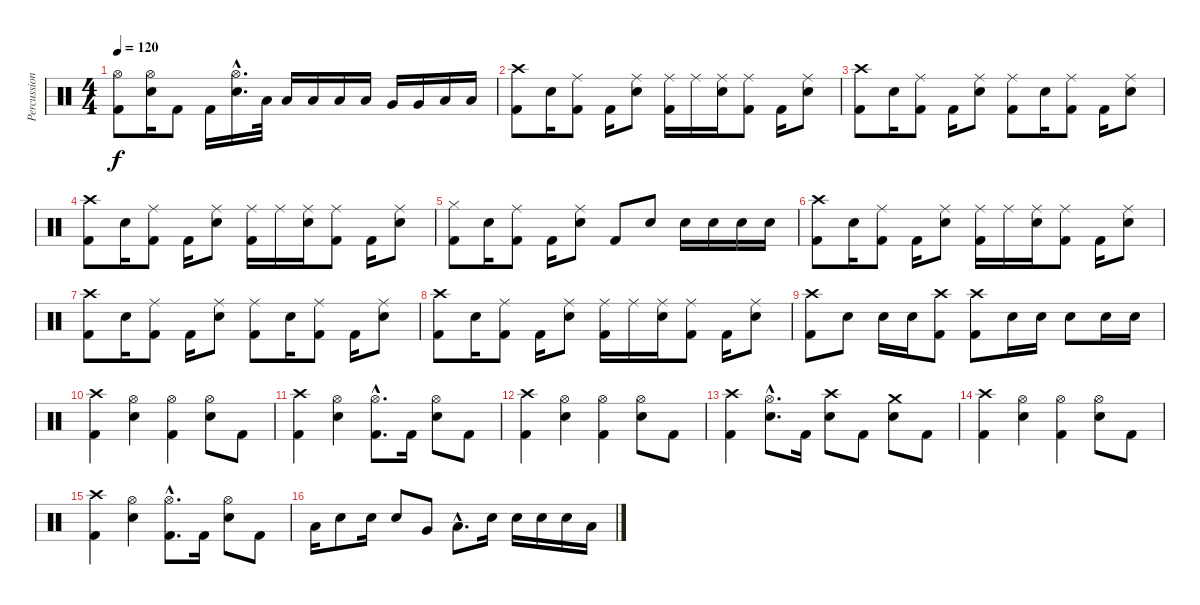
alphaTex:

\track ("Percussion" "Percussion") {instrument percussion}
\staff {score}
\articulation defaults
\ts (4 4)
\tempo 120
\clef neutral
\ks c
("Hi-Hat (open)" "Kick (hit) 2").8{dy f} ("Hi-Hat (open)" "Snare (hit) 2").16 "Kick (hit) 2".8 "Kick (hit) 2".16 ("Hi-Hat (open)"{hac} "Snare (hit) 2"{hac}).16{d} "Low Tom (hit)".32 "Low Tom (hit)".16 "Low Tom (hit)".16 "Low Tom (hit)".16 "Low Tom (hit)".16 "Very Low Tom (hit)".16 "Very Low Tom (hit)".16 "Low Floor Tom (hit)".16 "Low Floor Tom (hit)".16 |
("Crash high (hit)" "Kick (hit) 2").8 "Snare (hit) 2".16 ("Ride (middle)" "Kick (hit) 2").8 "Kick (hit) 2".16 ("Ride (middle)" "Snare (hit) 2").8 ("Ride (middle)" "Kick (hit) 2").16 "Ride (middle)".16 ("Ride (middle)" "Snare (hit) 2").16 ("Ride (middle)" "Kick (hit) 2").8 "Kick (hit) 2".16 ("Ride (middle)" "Snare (hit) 2").8 |
("Crash high (hit)" "Kick (hit) 2").8 "Snare (hit) 2".16 ("Ride (middle)" "Kick (hit) 2").8 "Kick (hit) 2".16 ("Ride (middle)" "Snare (hit) 2").8 ("Ride (middle)" "Kick (hit) 2").8 "Snare (hit) 2".16 ("Ride (middle)" "Kick (hit) 2").8 "Kick (hit) 2".16 ("Ride (middle)" "Snare (hit) 2").8 |
("Crash high (hit)" "Kick (hit) 2").8 "Snare (hit) 2".16 ("Ride (middle)" "Kick (hit) 2").8 "Kick (hit) 2".16 ("Ride (middle)" "Snare (hit) 2").8 ("Ride (middle)" "Kick (hit) 2").16 "Ride (middle)".16 ("Ride (middle)" "Snare (hit) 2").16 ("Ride (middle)" "Kick (hit) 2").8 "Kick (hit) 2".16 ("Ride (middle)" "Snare (hit) 2").8 |
("Hi-Hat (closed)" "Kick (hit) 2").8 "Snare (hit) 2".16 ("Ride (middle)" "Kick (hit) 2").8 "Kick (hit) 2".16 ("Ride (middle)" "Snare (hit) 2").8 "Kick (hit) 2".8 "Snare (hit) 2".8 "Snare (hit) 2".16 "Snare (hit) 2".16 "Snare (hit) 2".16 "Snare (hit) 2".16 |
("Crash high (hit)" "Kick (hit) 2").8 "Snare (hit) 2".16 ("Ride (middle)" "Kick (hit) 2").8 "Kick (hit) 2".16 ("Ride (middle)" "Snare (hit) 2").8 ("Ride (middle)" "Kick (hit) 2").16 "Ride (middle)".16 ("Ride (middle)" "Snare (hit) 2").16 ("Ride (middle)" "Kick (hit) 2").8 "Kick (hit) 2".16 ("Ride (middle)" "Snare (hit) 2").8 |
("Crash high (hit)" "Kick (hit) 2").8 "Snare (hit) 2".16 ("Ride (middle)" "Kick (hit) 2").8 "Kick (hit) 2".16 ("Ride (middle)" "Snare (hit) 2").8 ("Ride (middle)" "Kick (hit) 2").8 "Snare (hit) 2".16 ("Ride (middle)" "Kick (hit) 2").8 "Kick (hit) 2".16 ("Ride (middle)" "Snare (hit) 2").8 |
("Crash high (hit)" "Kick (hit) 2").8 "Snare (hit) 2".16 ("Ride (middle)" "Kick (hit) 2").8 "Kick (hit) 2".16 ("Ride (middle)" "Snare (hit) 2").8 ("Ride (middle)" "Kick (hit) 2").16 "Ride (middle)".16 ("Ride (middle)" "Snare (hit) 2").16 ("Ride (middle)" "Kick (hit) 2").8 "Kick (hit) 2".16 ("Ride (middle)" "Snare (hit) 2").8 |
("Crash high (hit)" "Kick (hit) 2").8 "Snare (hit) 2".8 "Snare (hit) 2".16 "Snare (hit) 2".16 ("Crash high (hit)" "Kick (hit) 2").8 ("Crash high (hit)" "Kick (hit) 2").8 "Snare (hit) 2".16 "Snare (hit) 2".16 "Snare (hit) 2".8 "Snare (hit) 2".16 "Snare (hit) 2".16 |
("Crash high (hit)" "Kick (hit) 2").4 ("Hi-Hat (open)" "Snare (hit) 2").4 ("Hi-Hat (open)" "Kick (hit) 2").4 ("Hi-Hat (open)" "Snare (hit) 2").8 "Kick (hit) 2".8 |
("Crash high (hit)" "Kick (hit) 2").4 ("Hi-Hat (open)" "Snare (hit) 2").4 ("Hi-Hat (open)"{hac} "Kick (hit) 2"{hac}).8{d} "Kick (hit) 2".16 ("Hi-Hat (open)" "Snare (hit) 2").8 "Kick (hit) 2".8 |
("Crash high (hit)" "Kick (hit) 2").4 ("Hi-Hat (open)" "Snare (hit) 2").4 ("Hi-Hat (open)" "Kick (hit) 2").4 ("Hi-Hat (open)" "Snare (hit) 2").8 "Kick (hit) 2".8 |
("Crash high (hit)" "Kick (hit) 2").4 ("Hi-Hat (open)"{hac} "Snare (hit) 2"{hac}).8{d} "Kick (hit) 2".16 ("Crash high (hit)" "Snare (hit) 2").8 "Kick (hit) 2".8 ("Crash medium (hit)" "Snare (hit) 2").8 "Kick (hit) 2".8 |
("Crash high (hit)" "Kick (hit) 2").4 ("Hi-Hat (open)" "Snare (hit) 2").4 ("Hi-Hat (open)" "Kick (hit) 2").4 ("Hi-Hat (open)" "Snare (hit) 2").8 "Kick (hit) 2".8 |
("Crash high (hit)" "Kick (hit) 2").4 ("Hi-Hat (open)" "Snare (hit) 2").4 ("Hi-Hat (open)"{hac} "Kick (hit) 2"{hac}).8{d} "Kick (hit) 2".16 ("Hi-Hat (open)" "Snare (hit) 2").8 "Kick (hit) 2".8 |
"Low Tom (hit)".16 "Snare (hit) 2".8 "Snare (hit) 2".16 "Snare (hit) 2".8 "Very Low Tom (hit)".8 "Low Floor Tom (hit)"{hac}.8{d} "Snare (hit) 2".16 "Snare (hit) 2".16 "Snare (hit) 2".16 "Snare (hit) 2".16 "Low Floor Tom (hit)".16
